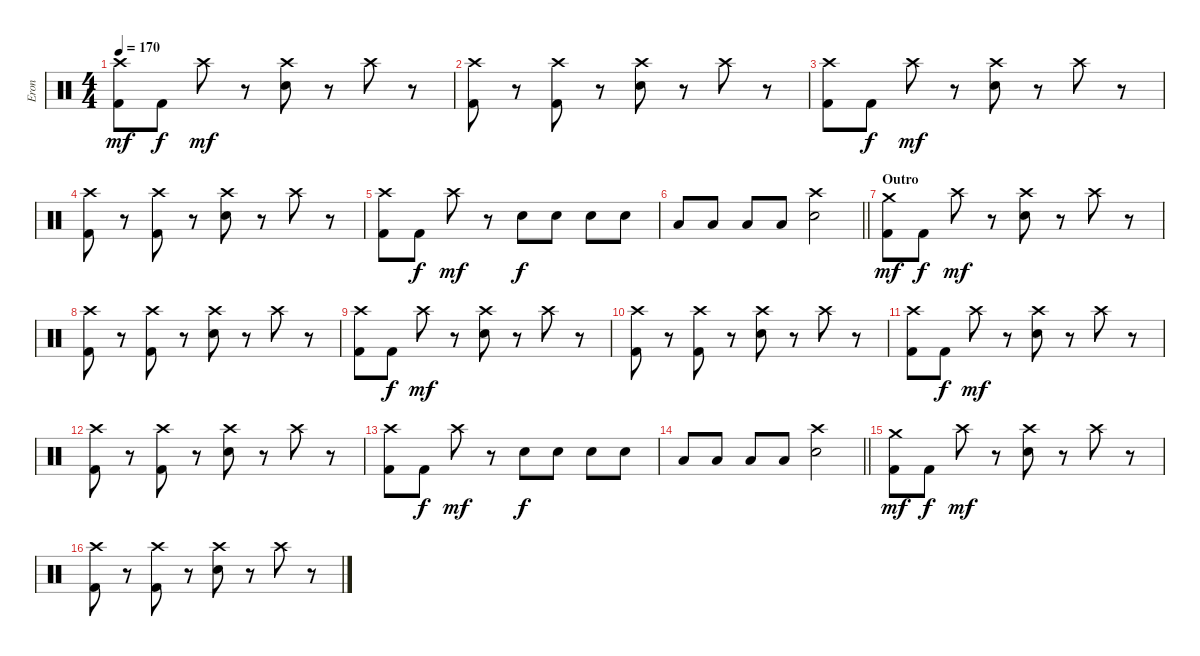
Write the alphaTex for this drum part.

\track ("Eron" "Eron") {instrument percussion}
\staff {score}
\articulation defaults
\ts (4 4)
\tempo 170
\clef neutral
\ks c
("Crash high (hit)" "Kick (hit) 2").8{dy mf} "Kick (hit) 2".8{dy f} "Crash high (hit)".8{dy mf} r.8 ("Crash high (hit)" "Snare (hit) 2").8 r.8 "Crash high (hit)".8 r.8 |
("Crash high (hit)" "Kick (hit) 2").8 r.8 ("Crash high (hit)" "Kick (hit) 2").8 r.8 ("Crash high (hit)" "Snare (hit) 2").8 r.8 "Crash high (hit)".8 r.8 |
("Crash high (hit)" "Kick (hit) 2").8 "Kick (hit) 2".8{dy f} "Crash high (hit)".8{dy mf} r.8 ("Crash high (hit)" "Snare (hit) 2").8 r.8 "Crash high (hit)".8 r.8 |
("Crash high (hit)" "Kick (hit) 2").8 r.8 ("Crash high (hit)" "Kick (hit) 2").8 r.8 ("Crash high (hit)" "Snare (hit) 2").8 r.8 "Crash high (hit)".8 r.8 |
("Crash high (hit)" "Kick (hit) 2").8 "Kick (hit) 2".8{dy f} "Crash high (hit)".8{dy mf} r.8 "Snare (hit) 2".8{dy f} "Snare (hit) 2".8 "Snare (hit) 2".8 "Snare (hit) 2".8 |
\barLineRight lightlight "Low Tom (hit)".8 "Low Tom (hit)".8 "Low Floor Tom (hit)".8 "Low Floor Tom (hit)".8
("Crash high (hit)" "Snare (hit) 2").2 |
\section ("" "Outro")
("Crash medium (hit)" "Kick (hit) 2").8{dy mf} "Kick (hit) 2".8{dy f} "Crash high (hit)".8{dy mf} r.8 ("Crash high (hit)" "Snare (hit) 2").8 r.8 "Crash high (hit)".8 r.8 |
("Crash high (hit)" "Kick (hit) 2").8 r.8 ("Crash high (hit)" "Kick (hit) 2").8 r.8 ("Crash high (hit)" "Snare (hit) 2").8 r.8 "Crash high (hit)".8 r.8 |
("Crash high (hit)" "Kick (hit) 2").8 "Kick (hit) 2".8{dy f} "Crash high (hit)".8{dy mf} r.8 ("Crash high (hit)" "Snare (hit) 2").8 r.8 "Crash high (hit)".8 r.8 |
("Crash high (hit)" "Kick (hit) 2").8 r.8 ("Crash high (hit)" "Kick (hit) 2").8 r.8 ("Crash high (hit)" "Snare (hit) 2").8 r.8 "Crash high (hit)".8 r.8 |
("Crash high (hit)" "Kick (hit) 2").8 "Kick (hit) 2".8{dy f} "Crash high (hit)".8{dy mf} r.8 ("Crash high (hit)" "Snare (hit) 2").8 r.8 "Crash high (hit)".8 r.8 |
("Crash high (hit)" "Kick (hit) 2").8 r.8 ("Crash high (hit)" "Kick (hit) 2").8 r.8 ("Crash high (hit)" "Snare (hit) 2").8 r.8 "Crash high (hit)".8 r.8 |
("Crash high (hit)" "Kick (hit) 2").8 "Kick (hit) 2".8{dy f} "Crash high (hit)".8{dy mf} r.8 "Snare (hit) 2".8{dy f} "Snare (hit) 2".8 "Snare (hit) 2".8 "Snare (hit) 2".8 |
\barLineRight lightlight "Low Tom (hit)".8 "Low Tom (hit)".8 "Low Floor Tom (hit)".8 "Low Floor Tom (hit)".8
("Crash high (hit)" "Snare (hit) 2").2 |
("Crash medium (hit)" "Kick (hit) 2").8{dy mf} "Kick (hit) 2".8{dy f} "Crash high (hit)".8{dy mf} r.8 ("Crash high (hit)" "Snare (hit) 2").8 r.8 "Crash high (hit)".8 r.8 |
("Crash high (hit)" "Kick (hit) 2").8 r.8 ("Crash high (hit)" "Kick (hit) 2").8 r.8 ("Crash high (hit)" "Snare (hit) 2").8 r.8 "Crash high (hit)".8 r.8
